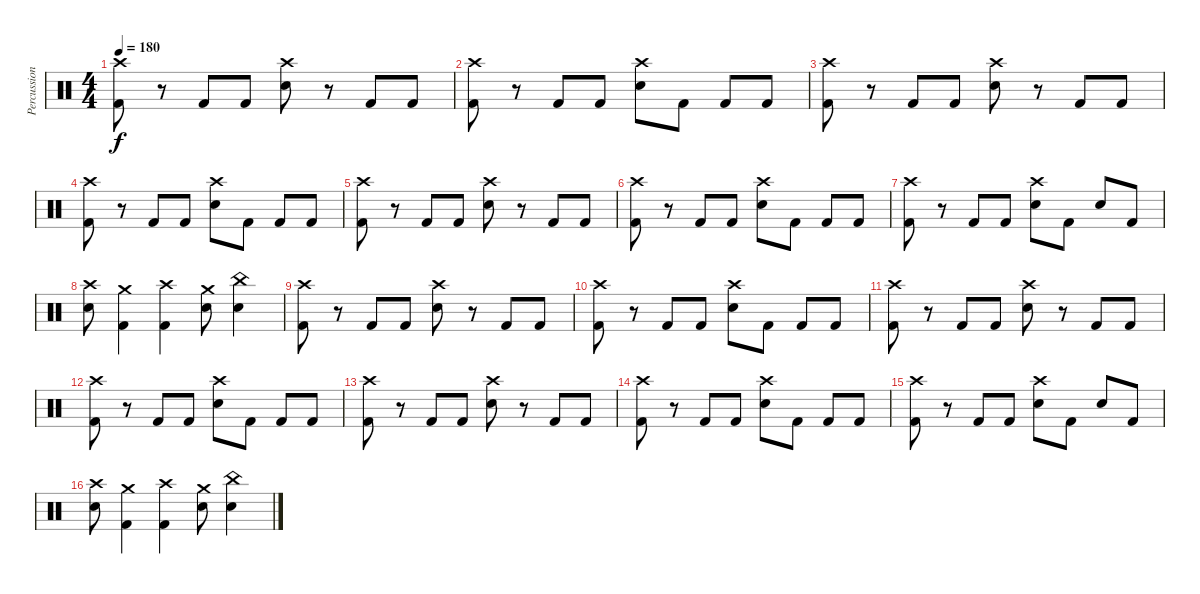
\track ("Percussion" "Percussion") {instrument percussion}
\staff {score}
\articulation defaults
\ts (4 4)
\tempo 180
\clef neutral
\ks c
("Crash high (hit)" "Kick (hit) 2").8{dy f} r.8 "Kick (hit) 2".8 "Kick (hit) 2".8 ("Crash high (hit)" "Electric Snare (hit)").8 r.8 "Kick (hit) 2".8 "Kick (hit) 2".8 |
("Crash high (hit)" "Kick (hit) 2").8 r.8 "Kick (hit) 2".8 "Kick (hit) 2".8 ("Crash high (hit)" "Electric Snare (hit)").8 "Kick (hit) 2".8 "Kick (hit) 2".8 "Kick (hit) 2".8 |
("Crash high (hit)" "Kick (hit) 2").8 r.8 "Kick (hit) 2".8 "Kick (hit) 2".8 ("Crash high (hit)" "Electric Snare (hit)").8 r.8 "Kick (hit) 2".8 "Kick (hit) 2".8 |
("Crash high (hit)" "Kick (hit) 2").8 r.8 "Kick (hit) 2".8 "Kick (hit) 2".8 ("Crash high (hit)" "Electric Snare (hit)").8 "Kick (hit) 2".8 "Kick (hit) 2".8 "Kick (hit) 2".8 |
("Crash high (hit)" "Kick (hit) 2").8 r.8 "Kick (hit) 2".8 "Kick (hit) 2".8 ("Crash high (hit)" "Electric Snare (hit)").8 r.8 "Kick (hit) 2".8 "Kick (hit) 2".8 |
("Crash high (hit)" "Kick (hit) 2").8 r.8 "Kick (hit) 2".8 "Kick (hit) 2".8 ("Crash high (hit)" "Electric Snare (hit)").8 "Kick (hit) 2".8 "Kick (hit) 2".8 "Kick (hit) 2".8 |
("Crash high (hit)" "Kick (hit) 2").8 r.8 "Kick (hit) 2".8 "Kick (hit) 2".8 ("Crash high (hit)" "Electric Snare (hit)").8 "Kick (hit) 2".8 "Electric Snare (hit)".8 "Kick (hit) 2".8 |
("Crash high (hit)" "Electric Snare (hit)").8 ("Crash medium (hit)" "Kick (hit) 2").4 ("Crash high (hit)" "Kick (hit) 2").4 ("Crash medium (hit)" "Electric Snare (hit)").8 ("China (hit)" "Electric Snare (hit)").4 |
("Crash high (hit)" "Kick (hit) 2").8 r.8 "Kick (hit) 2".8 "Kick (hit) 2".8 ("Crash high (hit)" "Electric Snare (hit)").8 r.8 "Kick (hit) 2".8 "Kick (hit) 2".8 |
("Crash high (hit)" "Kick (hit) 2").8 r.8 "Kick (hit) 2".8 "Kick (hit) 2".8 ("Crash high (hit)" "Electric Snare (hit)").8 "Kick (hit) 2".8 "Kick (hit) 2".8 "Kick (hit) 2".8 |
("Crash high (hit)" "Kick (hit) 2").8 r.8 "Kick (hit) 2".8 "Kick (hit) 2".8 ("Crash high (hit)" "Electric Snare (hit)").8 r.8 "Kick (hit) 2".8 "Kick (hit) 2".8 |
("Crash high (hit)" "Kick (hit) 2").8 r.8 "Kick (hit) 2".8 "Kick (hit) 2".8 ("Crash high (hit)" "Electric Snare (hit)").8 "Kick (hit) 2".8 "Kick (hit) 2".8 "Kick (hit) 2".8 |
("Crash high (hit)" "Kick (hit) 2").8 r.8 "Kick (hit) 2".8 "Kick (hit) 2".8 ("Crash high (hit)" "Electric Snare (hit)").8 r.8 "Kick (hit) 2".8 "Kick (hit) 2".8 |
("Crash high (hit)" "Kick (hit) 2").8 r.8 "Kick (hit) 2".8 "Kick (hit) 2".8 ("Crash high (hit)" "Electric Snare (hit)").8 "Kick (hit) 2".8 "Kick (hit) 2".8 "Kick (hit) 2".8 |
("Crash high (hit)" "Kick (hit) 2").8 r.8 "Kick (hit) 2".8 "Kick (hit) 2".8 ("Crash high (hit)" "Electric Snare (hit)").8 "Kick (hit) 2".8 "Electric Snare (hit)".8 "Kick (hit) 2".8 |
("Crash high (hit)" "Electric Snare (hit)").8 ("Crash medium (hit)" "Kick (hit) 2").4 ("Crash high (hit)" "Kick (hit) 2").4 ("Crash medium (hit)" "Electric Snare (hit)").8 ("China (hit)" "Electric Snare (hit)").4
